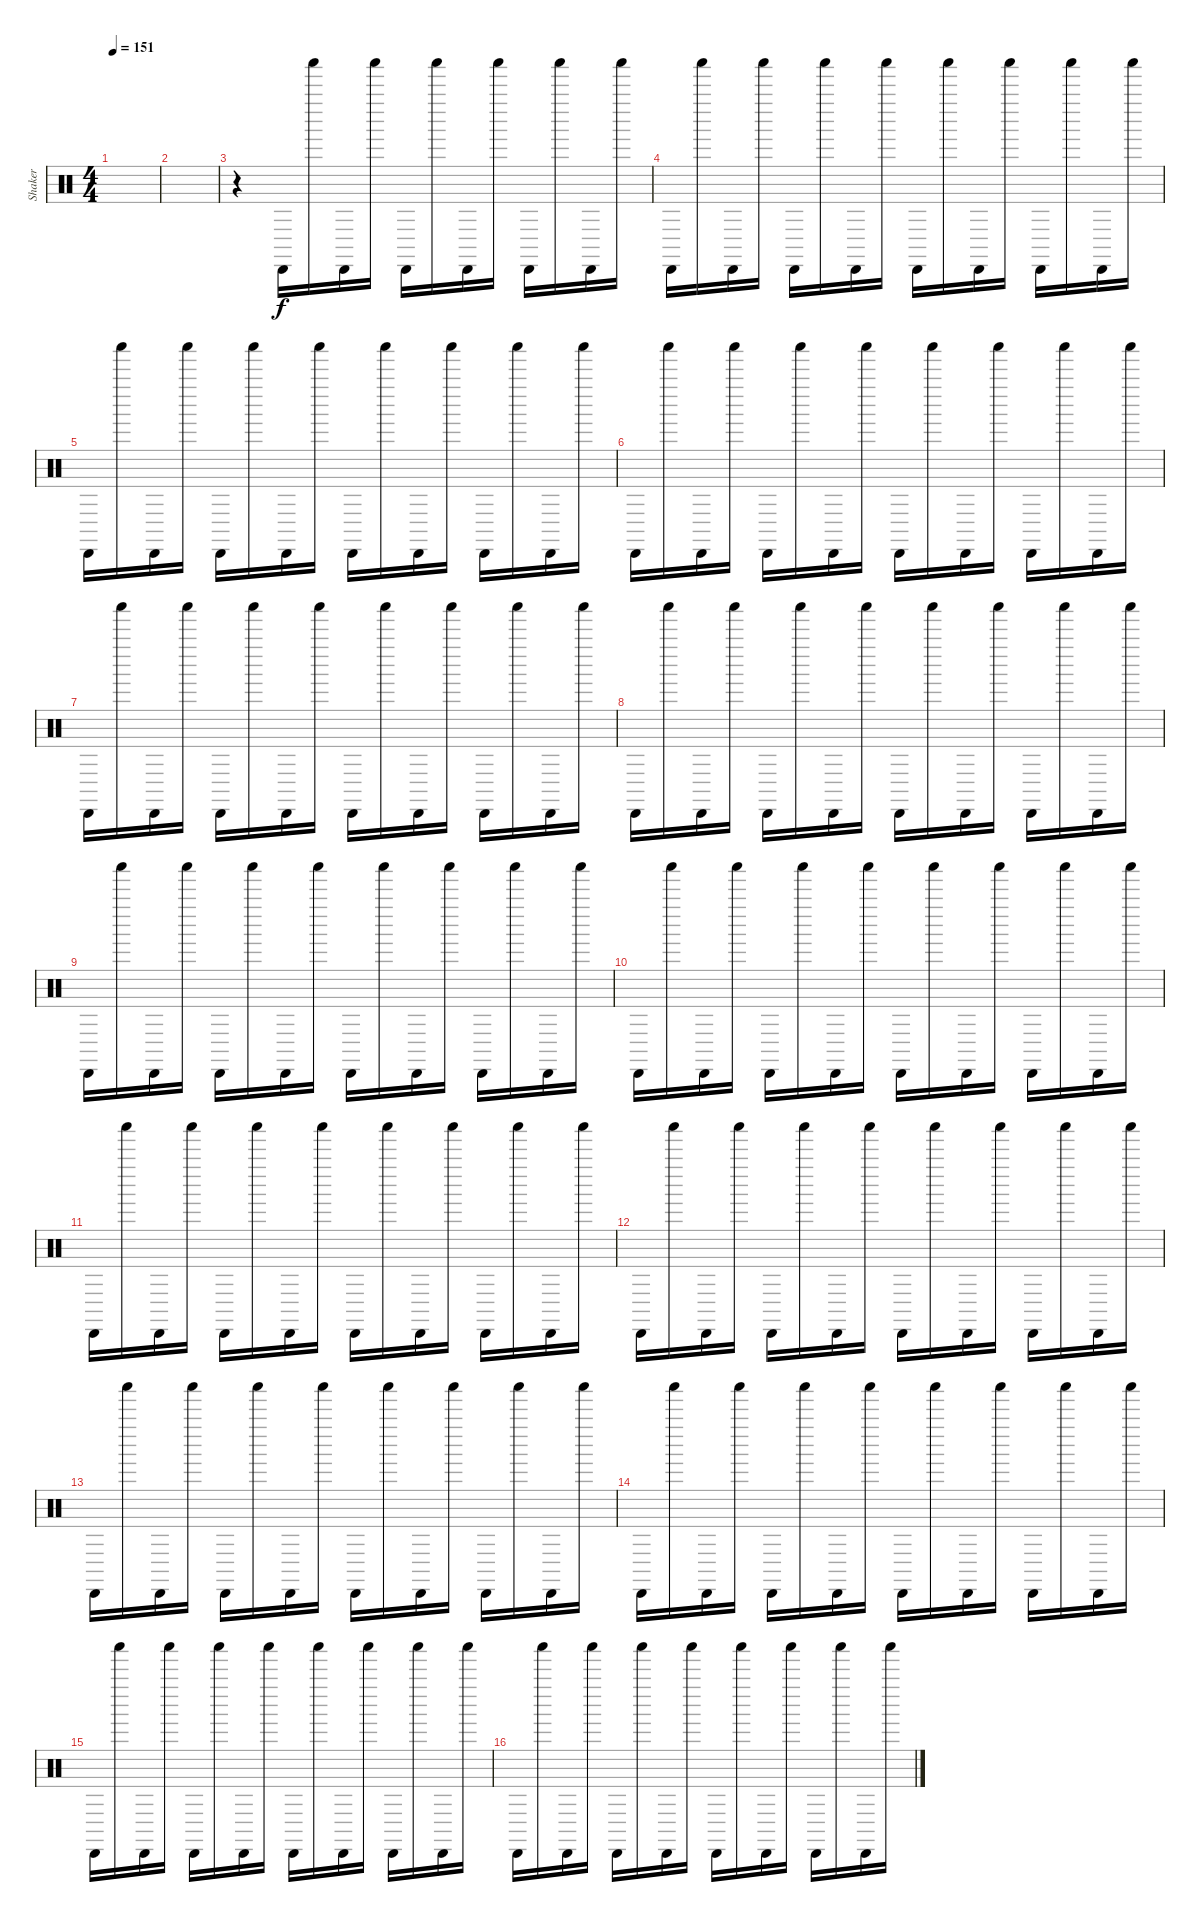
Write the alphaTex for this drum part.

\track ("Shaker" "Shaker") {instrument percussion}
\staff {score}
\articulation defaults
\ts (4 4)
\tempo 151
\clef neutral
\ks c
|
|
r.4 "Cabasa (hit)".16{volume 15} "Shaker (hit)".16 "Cabasa (hit)".16 "Shaker (hit)".16 "Cabasa (hit)".16 "Shaker (hit)".16 "Cabasa (hit)".16 "Shaker (hit)".16 "Cabasa (hit)".16 "Shaker (hit)".16 "Cabasa (hit)".16 "Shaker (hit)".16 |
"Cabasa (hit)".16 "Shaker (hit)".16 "Cabasa (hit)".16 "Shaker (hit)".16 "Cabasa (hit)".16 "Shaker (hit)".16 "Cabasa (hit)".16 "Shaker (hit)".16 "Cabasa (hit)".16 "Shaker (hit)".16 "Cabasa (hit)".16 "Shaker (hit)".16 "Cabasa (hit)".16 "Shaker (hit)".16 "Cabasa (hit)".16 "Shaker (hit)".16 |
"Cabasa (hit)".16 "Shaker (hit)".16 "Cabasa (hit)".16 "Shaker (hit)".16 "Cabasa (hit)".16 "Shaker (hit)".16 "Cabasa (hit)".16 "Shaker (hit)".16 "Cabasa (hit)".16 "Shaker (hit)".16 "Cabasa (hit)".16 "Shaker (hit)".16 "Cabasa (hit)".16 "Shaker (hit)".16 "Cabasa (hit)".16 "Shaker (hit)".16 |
"Cabasa (hit)".16 "Shaker (hit)".16 "Cabasa (hit)".16 "Shaker (hit)".16 "Cabasa (hit)".16 "Shaker (hit)".16 "Cabasa (hit)".16 "Shaker (hit)".16 "Cabasa (hit)".16 "Shaker (hit)".16 "Cabasa (hit)".16 "Shaker (hit)".16 "Cabasa (hit)".16 "Shaker (hit)".16 "Cabasa (hit)".16 "Shaker (hit)".16 |
"Cabasa (hit)".16 "Shaker (hit)".16 "Cabasa (hit)".16 "Shaker (hit)".16 "Cabasa (hit)".16 "Shaker (hit)".16 "Cabasa (hit)".16 "Shaker (hit)".16 "Cabasa (hit)".16 "Shaker (hit)".16 "Cabasa (hit)".16 "Shaker (hit)".16 "Cabasa (hit)".16 "Shaker (hit)".16 "Cabasa (hit)".16 "Shaker (hit)".16 |
"Cabasa (hit)".16 "Shaker (hit)".16 "Cabasa (hit)".16 "Shaker (hit)".16 "Cabasa (hit)".16 "Shaker (hit)".16 "Cabasa (hit)".16 "Shaker (hit)".16 "Cabasa (hit)".16 "Shaker (hit)".16 "Cabasa (hit)".16 "Shaker (hit)".16 "Cabasa (hit)".16 "Shaker (hit)".16 "Cabasa (hit)".16 "Shaker (hit)".16 |
"Cabasa (hit)".16 "Shaker (hit)".16 "Cabasa (hit)".16 "Shaker (hit)".16 "Cabasa (hit)".16 "Shaker (hit)".16 "Cabasa (hit)".16 "Shaker (hit)".16 "Cabasa (hit)".16 "Shaker (hit)".16 "Cabasa (hit)".16 "Shaker (hit)".16 "Cabasa (hit)".16 "Shaker (hit)".16 "Cabasa (hit)".16 "Shaker (hit)".16 |
"Cabasa (hit)".16 "Shaker (hit)".16 "Cabasa (hit)".16 "Shaker (hit)".16 "Cabasa (hit)".16 "Shaker (hit)".16 "Cabasa (hit)".16 "Shaker (hit)".16 "Cabasa (hit)".16 "Shaker (hit)".16 "Cabasa (hit)".16 "Shaker (hit)".16 "Cabasa (hit)".16 "Shaker (hit)".16 "Cabasa (hit)".16 "Shaker (hit)".16 |
"Cabasa (hit)".16 "Shaker (hit)".16 "Cabasa (hit)".16 "Shaker (hit)".16 "Cabasa (hit)".16 "Shaker (hit)".16 "Cabasa (hit)".16 "Shaker (hit)".16 "Cabasa (hit)".16 "Shaker (hit)".16 "Cabasa (hit)".16 "Shaker (hit)".16 "Cabasa (hit)".16 "Shaker (hit)".16 "Cabasa (hit)".16 "Shaker (hit)".16 |
"Cabasa (hit)".16 "Shaker (hit)".16 "Cabasa (hit)".16 "Shaker (hit)".16 "Cabasa (hit)".16 "Shaker (hit)".16 "Cabasa (hit)".16 "Shaker (hit)".16 "Cabasa (hit)".16 "Shaker (hit)".16 "Cabasa (hit)".16 "Shaker (hit)".16 "Cabasa (hit)".16 "Shaker (hit)".16 "Cabasa (hit)".16 "Shaker (hit)".16 |
"Cabasa (hit)".16 "Shaker (hit)".16 "Cabasa (hit)".16 "Shaker (hit)".16 "Cabasa (hit)".16 "Shaker (hit)".16 "Cabasa (hit)".16 "Shaker (hit)".16 "Cabasa (hit)".16 "Shaker (hit)".16 "Cabasa (hit)".16 "Shaker (hit)".16 "Cabasa (hit)".16 "Shaker (hit)".16 "Cabasa (hit)".16 "Shaker (hit)".16 |
"Cabasa (hit)".16 "Shaker (hit)".16 "Cabasa (hit)".16 "Shaker (hit)".16 "Cabasa (hit)".16 "Shaker (hit)".16 "Cabasa (hit)".16 "Shaker (hit)".16 "Cabasa (hit)".16 "Shaker (hit)".16 "Cabasa (hit)".16 "Shaker (hit)".16 "Cabasa (hit)".16 "Shaker (hit)".16 "Cabasa (hit)".16 "Shaker (hit)".16 |
"Cabasa (hit)".16 "Shaker (hit)".16 "Cabasa (hit)".16 "Shaker (hit)".16 "Cabasa (hit)".16 "Shaker (hit)".16 "Cabasa (hit)".16 "Shaker (hit)".16 "Cabasa (hit)".16 "Shaker (hit)".16 "Cabasa (hit)".16 "Shaker (hit)".16 "Cabasa (hit)".16 "Shaker (hit)".16 "Cabasa (hit)".16 "Shaker (hit)".16 |
"Cabasa (hit)".16 "Shaker (hit)".16 "Cabasa (hit)".16 "Shaker (hit)".16 "Cabasa (hit)".16 "Shaker (hit)".16 "Cabasa (hit)".16 "Shaker (hit)".16 "Cabasa (hit)".16 "Shaker (hit)".16 "Cabasa (hit)".16 "Shaker (hit)".16 "Cabasa (hit)".16 "Shaker (hit)".16 "Cabasa (hit)".16 "Shaker (hit)".16
